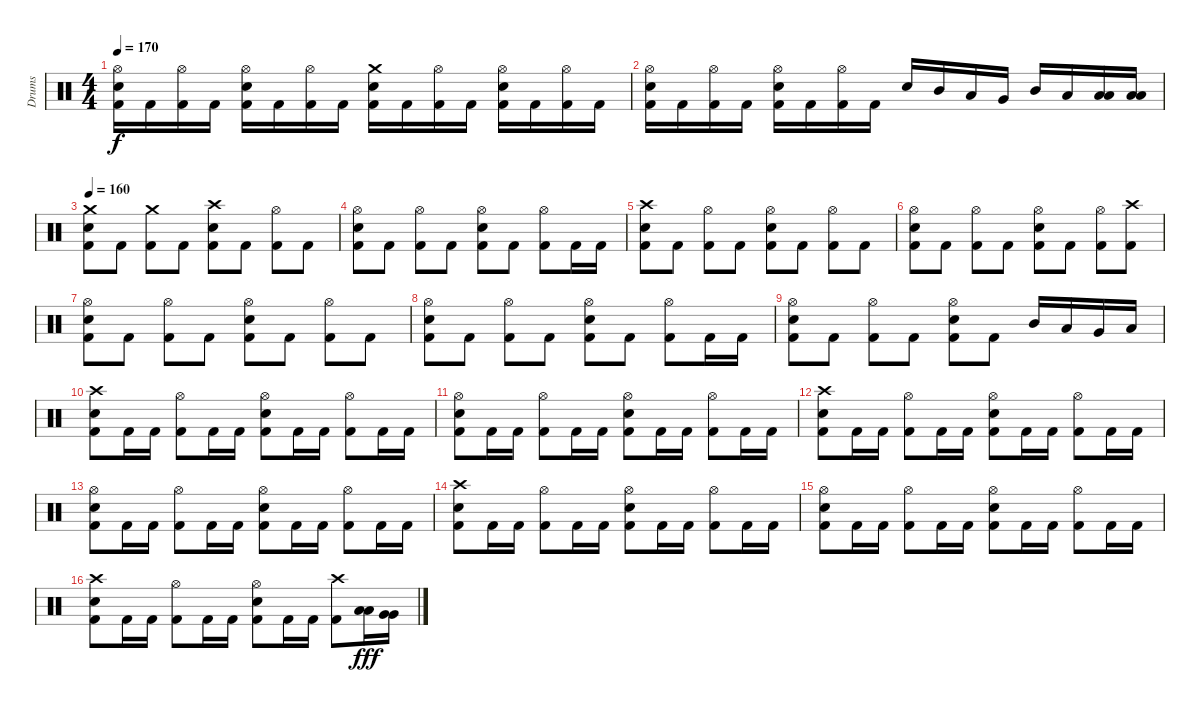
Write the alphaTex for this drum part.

\track ("Drums" "Drums") {instrument percussion}
\staff {score}
\articulation defaults
\ts (4 4)
\tempo 170
\clef neutral
\ks c
("Snare (hit) 2" "Kick (hit) 2" "Hi-Hat (open)").16{dy f} "Kick (hit) 2".16 ("Kick (hit) 2" "Hi-Hat (open)").16 "Kick (hit) 2".16 ("Kick (hit) 2" "Snare (hit) 2" "Hi-Hat (open)").16 "Kick (hit) 2".16 ("Kick (hit) 2" "Hi-Hat (open)").16 "Kick (hit) 2".16 ("Kick (hit) 2" "Snare (hit) 2" "Crash medium (hit)").16 "Kick (hit) 2".16 ("Kick (hit) 2" "Hi-Hat (open)").16 "Kick (hit) 2".16 ("Kick (hit) 2" "Snare (hit) 2" "Hi-Hat (open)").16 "Kick (hit) 2".16 ("Kick (hit) 2" "Hi-Hat (open)").16 "Kick (hit) 2".16 |
("Snare (hit) 2" "Kick (hit) 2" "Hi-Hat (open)").16 "Kick (hit) 2".16 ("Kick (hit) 2" "Hi-Hat (open)").16 "Kick (hit) 2".16 ("Kick (hit) 2" "Snare (hit) 2" "Hi-Hat (open)").16 "Kick (hit) 2".16 ("Kick (hit) 2" "Hi-Hat (open)").16 "Kick (hit) 2".16 "Snare (hit) 2".16 "Mid Tom (hit)".16 "Low Tom (hit)".16 "Very Low Tom (hit)".16 "Mid Tom (hit)".16 "Low Tom (hit)".16 ("Low Floor Tom (hit)" "Low Tom (hit)").16 ("Low Floor Tom (hit)" "Low Tom (hit)").16 |
\tempo 160
("Kick (hit) 2" "Snare (hit) 2" "Crash medium (hit)").8 "Kick (hit) 2".8 ("Kick (hit) 2" "Crash medium (hit)").8 "Kick (hit) 2".8 ("Kick (hit) 2" "Snare (hit) 2" "Crash high (hit)").8 "Kick (hit) 2".8 ("Kick (hit) 2" "Hi-Hat (open)").8 "Kick (hit) 2".8 |
("Kick (hit) 2" "Snare (hit) 2" "Hi-Hat (open)").8 "Kick (hit) 2".8 ("Kick (hit) 2" "Hi-Hat (open)").8 "Kick (hit) 2".8 ("Kick (hit) 2" "Snare (hit) 2" "Hi-Hat (open)").8 "Kick (hit) 2".8 ("Kick (hit) 2" "Hi-Hat (open)").8 "Kick (hit) 2".16 "Kick (hit) 2".16 |
("Kick (hit) 2" "Snare (hit) 2" "Crash high (hit)").8 "Kick (hit) 2".8 ("Kick (hit) 2" "Hi-Hat (open)").8 "Kick (hit) 2".8 ("Kick (hit) 2" "Snare (hit) 2" "Hi-Hat (open)").8 "Kick (hit) 2".8 ("Kick (hit) 2" "Hi-Hat (open)").8 "Kick (hit) 2".8 |
("Kick (hit) 2" "Snare (hit) 2" "Hi-Hat (open)").8 "Kick (hit) 2".8 ("Kick (hit) 2" "Hi-Hat (open)").8 "Kick (hit) 2".8 ("Kick (hit) 2" "Snare (hit) 2" "Hi-Hat (open)").8 "Kick (hit) 2".8 ("Kick (hit) 2" "Hi-Hat (open)").8 ("Kick (hit) 2" "Crash high (hit)").8 |
("Kick (hit) 2" "Snare (hit) 2" "Hi-Hat (open)").8 "Kick (hit) 2".8 ("Kick (hit) 2" "Hi-Hat (open)").8 "Kick (hit) 2".8 ("Kick (hit) 2" "Snare (hit) 2" "Hi-Hat (open)").8 "Kick (hit) 2".8 ("Kick (hit) 2" "Hi-Hat (open)").8 "Kick (hit) 2".8 |
("Kick (hit) 2" "Snare (hit) 2" "Hi-Hat (open)").8 "Kick (hit) 2".8 ("Kick (hit) 2" "Hi-Hat (open)").8 "Kick (hit) 2".8 ("Kick (hit) 2" "Snare (hit) 2" "Hi-Hat (open)").8 "Kick (hit) 2".8 ("Kick (hit) 2" "Hi-Hat (open)").8 "Kick (hit) 2".16 "Kick (hit) 2".16 |
("Kick (hit) 2" "Snare (hit) 2" "Hi-Hat (open)").8 "Kick (hit) 2".8 ("Kick (hit) 2" "Hi-Hat (open)").8 "Kick (hit) 2".8 ("Kick (hit) 2" "Snare (hit) 2" "Hi-Hat (open)").8 "Kick (hit) 2".8 "Mid Tom (hit)".16 "Low Tom (hit)".16 "Very Low Tom (hit)".16 "Low Floor Tom (hit)".16 |
("Kick (hit) 2" "Snare (hit) 2" "Crash high (hit)").8 "Kick (hit) 2".16 "Kick (hit) 2".16 ("Kick (hit) 2" "Hi-Hat (open)").8 "Kick (hit) 2".16 "Kick (hit) 2".16 ("Kick (hit) 2" "Snare (hit) 2" "Hi-Hat (open)").8 "Kick (hit) 2".16 "Kick (hit) 2".16 ("Kick (hit) 2" "Hi-Hat (open)").8 "Kick (hit) 2".16 "Kick (hit) 2".16 |
("Kick (hit) 2" "Snare (hit) 2" "Hi-Hat (open)").8 "Kick (hit) 2".16 "Kick (hit) 2".16 ("Kick (hit) 2" "Hi-Hat (open)").8 "Kick (hit) 2".16 "Kick (hit) 2".16 ("Kick (hit) 2" "Snare (hit) 2" "Hi-Hat (open)").8 "Kick (hit) 2".16 "Kick (hit) 2".16 ("Kick (hit) 2" "Hi-Hat (open)").8 "Kick (hit) 2".16 "Kick (hit) 2".16 |
("Kick (hit) 2" "Snare (hit) 2" "Crash high (hit)").8 "Kick (hit) 2".16 "Kick (hit) 2".16 ("Kick (hit) 2" "Hi-Hat (open)").8 "Kick (hit) 2".16 "Kick (hit) 2".16 ("Kick (hit) 2" "Snare (hit) 2" "Hi-Hat (open)").8 "Kick (hit) 2".16 "Kick (hit) 2".16 ("Kick (hit) 2" "Hi-Hat (open)").8 "Kick (hit) 2".16 "Kick (hit) 2".16 |
("Kick (hit) 2" "Snare (hit) 2" "Hi-Hat (open)").8 "Kick (hit) 2".16 "Kick (hit) 2".16 ("Kick (hit) 2" "Hi-Hat (open)").8 "Kick (hit) 2".16 "Kick (hit) 2".16 ("Kick (hit) 2" "Snare (hit) 2" "Hi-Hat (open)").8 "Kick (hit) 2".16 "Kick (hit) 2".16 ("Kick (hit) 2" "Hi-Hat (open)").8 "Kick (hit) 2".16 "Kick (hit) 2".16 |
("Kick (hit) 2" "Snare (hit) 2" "Crash high (hit)").8 "Kick (hit) 2".16 "Kick (hit) 2".16 ("Kick (hit) 2" "Hi-Hat (open)").8 "Kick (hit) 2".16 "Kick (hit) 2".16 ("Kick (hit) 2" "Snare (hit) 2" "Hi-Hat (open)").8 "Kick (hit) 2".16 "Kick (hit) 2".16 ("Kick (hit) 2" "Hi-Hat (open)").8 "Kick (hit) 2".16 "Kick (hit) 2".16 |
("Kick (hit) 2" "Snare (hit) 2" "Hi-Hat (open)").8 "Kick (hit) 2".16 "Kick (hit) 2".16 ("Kick (hit) 2" "Hi-Hat (open)").8 "Kick (hit) 2".16 "Kick (hit) 2".16 ("Kick (hit) 2" "Snare (hit) 2" "Hi-Hat (open)").8 "Kick (hit) 2".16 "Kick (hit) 2".16 ("Kick (hit) 2" "Hi-Hat (open)").8 "Kick (hit) 2".16 "Kick (hit) 2".16 |
("Kick (hit) 2" "Snare (hit) 2" "Crash high (hit)").8 "Kick (hit) 2".16 "Kick (hit) 2".16 ("Kick (hit) 2" "Hi-Hat (open)").8 "Kick (hit) 2".16 "Kick (hit) 2".16 ("Kick (hit) 2" "Snare (hit) 2" "Hi-Hat (open)").8 "Kick (hit) 2".16 "Kick (hit) 2".16 ("Kick (hit) 2" "Crash high (hit)").8 ("Low Tom (hit)" "Low Tom (hit)").16{dy fff} ("Very Low Tom (hit)" "Very Low Tom (hit)").16
